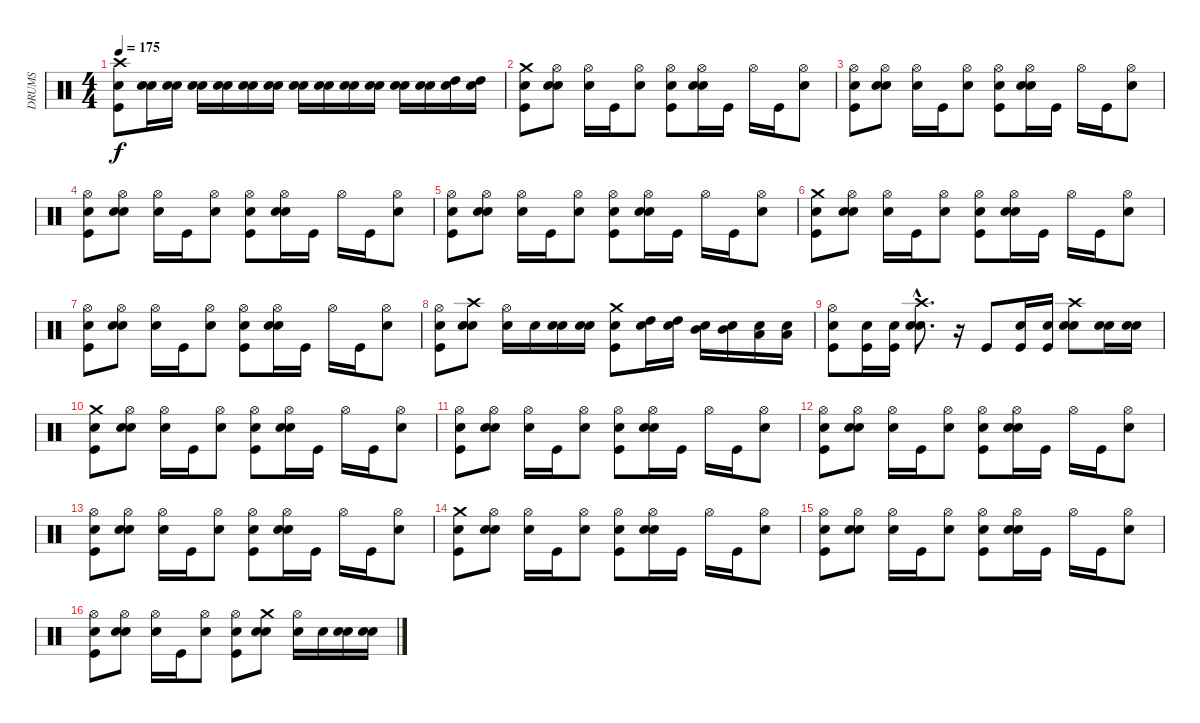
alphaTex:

\track ("DRUMS" "DRUMS") {instrument percussion}
\staff {score}
\articulation defaults
\ts (4 4)
\tempo 175
\clef neutral
\ks c
("Snare (hit)" "Kick (hit)" "Crash high (hit)").8{dy f} ("Snare (hit)" "Snare (hit) 2").16 ("Snare (hit)" "Snare (hit) 2").16 ("Snare (hit)" "Snare (hit) 2").16 ("Snare (hit)" "Snare (hit) 2").16 ("Snare (hit)" "Snare (hit) 2").16 ("Snare (hit)" "Snare (hit) 2").16 ("Snare (hit)" "Snare (hit) 2").16 ("Snare (hit)" "Snare (hit) 2").16 ("Snare (hit)" "Snare (hit) 2").16 ("Snare (hit)" "Snare (hit) 2").16 ("Snare (hit)" "Snare (hit) 2").16 ("Snare (hit)" "Snare (hit) 2").16 ("Snare (hit)" "High Tom (hit)").16 ("Snare (hit)" "High Tom (hit)").16 |
("Snare (hit)" "Kick (hit)" "Crash medium (hit)").8 ("Snare (hit)" "Snare (hit) 2" "Hi-Hat (open)").8 ("Snare (hit)" "Hi-Hat (open)").16 "Kick (hit)".16 ("Snare (hit) 2" "Hi-Hat (open)").8 ("Snare (hit)" "Kick (hit)" "Hi-Hat (open)").8 ("Snare (hit)" "Snare (hit) 2" "Hi-Hat (open)").16 "Kick (hit)".16 "Hi-Hat (open)".16 "Kick (hit)".16 ("Snare (hit) 2" "Hi-Hat (open)").8 |
("Snare (hit)" "Hi-Hat (open)" "Kick (hit)").8 ("Snare (hit)" "Hi-Hat (open)" "Snare (hit) 2").8 ("Snare (hit)" "Hi-Hat (open)").16 "Kick (hit)".16 ("Hi-Hat (open)" "Snare (hit) 2").8 ("Snare (hit)" "Hi-Hat (open)" "Kick (hit)").8 ("Snare (hit)" "Hi-Hat (open)" "Snare (hit) 2").16 "Kick (hit)".16 "Hi-Hat (open)".16 "Kick (hit)".16 ("Hi-Hat (open)" "Snare (hit) 2").8 |
("Snare (hit)" "Hi-Hat (open)" "Kick (hit)").8 ("Snare (hit)" "Hi-Hat (open)" "Snare (hit) 2").8 ("Snare (hit)" "Hi-Hat (open)").16 "Kick (hit)".16 ("Hi-Hat (open)" "Snare (hit) 2").8 ("Snare (hit)" "Hi-Hat (open)" "Kick (hit)").8 ("Snare (hit)" "Hi-Hat (open)" "Snare (hit) 2").16 "Kick (hit)".16 "Hi-Hat (open)".16 "Kick (hit)".16 ("Hi-Hat (open)" "Snare (hit) 2").8 |
("Snare (hit)" "Hi-Hat (open)" "Kick (hit)").8 ("Snare (hit)" "Hi-Hat (open)" "Snare (hit) 2").8 ("Snare (hit)" "Hi-Hat (open)").16 "Kick (hit)".16 ("Hi-Hat (open)" "Snare (hit) 2").8 ("Snare (hit)" "Hi-Hat (open)" "Kick (hit)").8 ("Snare (hit)" "Hi-Hat (open)" "Snare (hit) 2").16 "Kick (hit)".16 "Hi-Hat (open)".16 "Kick (hit)".16 ("Hi-Hat (open)" "Snare (hit) 2").8 |
("Snare (hit)" "Kick (hit)" "Crash medium (hit)").8 ("Snare (hit)" "Snare (hit) 2" "Hi-Hat (open)").8 ("Snare (hit)" "Hi-Hat (open)").16 "Kick (hit)".16 ("Snare (hit) 2" "Hi-Hat (open)").8 ("Snare (hit)" "Kick (hit)" "Hi-Hat (open)").8 ("Snare (hit)" "Snare (hit) 2" "Hi-Hat (open)").16 "Kick (hit)".16 "Hi-Hat (open)".16 "Kick (hit)".16 ("Snare (hit) 2" "Hi-Hat (open)").8 |
("Snare (hit)" "Hi-Hat (open)" "Kick (hit)").8 ("Snare (hit)" "Hi-Hat (open)" "Snare (hit) 2").8 ("Snare (hit)" "Hi-Hat (open)").16 "Kick (hit)".16 ("Hi-Hat (open)" "Snare (hit) 2").8 ("Snare (hit)" "Hi-Hat (open)" "Kick (hit)").8 ("Snare (hit)" "Hi-Hat (open)" "Snare (hit) 2").16 "Kick (hit)".16 "Hi-Hat (open)".16 "Kick (hit)".16 ("Hi-Hat (open)" "Snare (hit) 2").8 |
("Snare (hit)" "Hi-Hat (open)" "Kick (hit)").8 ("Snare (hit)" "Crash high (hit)" "Snare (hit) 2").8 ("Snare (hit)" "Hi-Hat (open)").16 "Snare (hit) 2".16 ("Snare (hit)" "Snare (hit) 2").16 ("Snare (hit)" "Snare (hit) 2").16 ("Snare (hit)" "Crash medium (hit)" "Kick (hit)").8 ("Snare (hit)" "High Tom (hit)").16 ("Snare (hit)" "High Tom (hit)").16 ("Snare (hit)" "Mid Tom (hit)").16 ("Snare (hit)" "Mid Tom (hit)").16 ("Snare (hit)" "Low Tom (hit)").16 ("Snare (hit)" "Low Tom (hit)").16 |
("Snare (hit)" "Kick (hit)" "Hi-Hat (open)").8 ("Snare (hit)" "Kick (hit)").16 ("Snare (hit)" "Kick (hit)").16 ("Snare (hit)"{hac} "Snare (hit) 2"{hac} "Crash high (hit)"{hac}).8{d} r.16 "Kick (hit)".8 ("Snare (hit)" "Kick (hit)").16 ("Snare (hit)" "Kick (hit)").16 ("Snare (hit)" "Snare (hit) 2" "Crash high (hit)").8 ("Snare (hit)" "Snare (hit) 2").16 ("Snare (hit)" "Snare (hit) 2").16 |
("Snare (hit)" "Kick (hit)" "Crash medium (hit)").8 ("Snare (hit)" "Snare (hit) 2" "Hi-Hat (open)").8 ("Snare (hit)" "Hi-Hat (open)").16 "Kick (hit)".16 ("Snare (hit) 2" "Hi-Hat (open)").8 ("Snare (hit)" "Kick (hit)" "Hi-Hat (open)").8 ("Snare (hit)" "Snare (hit) 2" "Hi-Hat (open)").16 "Kick (hit)".16 "Hi-Hat (open)".16 "Kick (hit)".16 ("Snare (hit) 2" "Hi-Hat (open)").8 |
("Snare (hit)" "Hi-Hat (open)" "Kick (hit)").8 ("Snare (hit)" "Hi-Hat (open)" "Snare (hit) 2").8 ("Snare (hit)" "Hi-Hat (open)").16 "Kick (hit)".16 ("Hi-Hat (open)" "Snare (hit) 2").8 ("Snare (hit)" "Hi-Hat (open)" "Kick (hit)").8 ("Snare (hit)" "Hi-Hat (open)" "Snare (hit) 2").16 "Kick (hit)".16 "Hi-Hat (open)".16 "Kick (hit)".16 ("Hi-Hat (open)" "Snare (hit) 2").8 |
("Snare (hit)" "Hi-Hat (open)" "Kick (hit)").8 ("Snare (hit)" "Hi-Hat (open)" "Snare (hit) 2").8 ("Snare (hit)" "Hi-Hat (open)").16 "Kick (hit)".16 ("Hi-Hat (open)" "Snare (hit) 2").8 ("Snare (hit)" "Hi-Hat (open)" "Kick (hit)").8 ("Snare (hit)" "Hi-Hat (open)" "Snare (hit) 2").16 "Kick (hit)".16 "Hi-Hat (open)".16 "Kick (hit)".16 ("Hi-Hat (open)" "Snare (hit) 2").8 |
("Snare (hit)" "Hi-Hat (open)" "Kick (hit)").8 ("Snare (hit)" "Hi-Hat (open)" "Snare (hit) 2").8 ("Snare (hit)" "Hi-Hat (open)").16 "Kick (hit)".16 ("Hi-Hat (open)" "Snare (hit) 2").8 ("Snare (hit)" "Hi-Hat (open)" "Kick (hit)").8 ("Snare (hit)" "Hi-Hat (open)" "Snare (hit) 2").16 "Kick (hit)".16 "Hi-Hat (open)".16 "Kick (hit)".16 ("Hi-Hat (open)" "Snare (hit) 2").8 |
("Snare (hit)" "Crash medium (hit)" "Kick (hit)").8 ("Snare (hit)" "Hi-Hat (open)" "Snare (hit) 2").8 ("Snare (hit)" "Hi-Hat (open)").16 "Kick (hit)".16 ("Hi-Hat (open)" "Snare (hit) 2").8 ("Snare (hit)" "Hi-Hat (open)" "Kick (hit)").8 ("Snare (hit)" "Hi-Hat (open)" "Snare (hit) 2").16 "Kick (hit)".16 "Hi-Hat (open)".16 "Kick (hit)".16 ("Hi-Hat (open)" "Snare (hit) 2").8 |
("Snare (hit)" "Kick (hit)" "Hi-Hat (open)").8 ("Snare (hit)" "Snare (hit) 2" "Hi-Hat (open)").8 ("Snare (hit)" "Hi-Hat (open)").16 "Kick (hit)".16 ("Snare (hit) 2" "Hi-Hat (open)").8 ("Snare (hit)" "Kick (hit)" "Hi-Hat (open)").8 ("Snare (hit)" "Snare (hit) 2" "Hi-Hat (open)").16 "Kick (hit)".16 "Hi-Hat (open)".16 "Kick (hit)".16 ("Snare (hit) 2" "Hi-Hat (open)").8 |
("Snare (hit)" "Kick (hit)" "Hi-Hat (open)").8 ("Snare (hit)" "Snare (hit) 2" "Hi-Hat (open)").8 ("Snare (hit)" "Hi-Hat (open)").16 "Kick (hit)".16 ("Snare (hit) 2" "Hi-Hat (open)").8 ("Snare (hit)" "Kick (hit)" "Hi-Hat (open)").8 ("Snare (hit)" "Snare (hit) 2" "Crash medium (hit)").8 ("Snare (hit)" "Hi-Hat (open)").16 "Snare (hit) 2".16 ("Snare (hit)" "Snare (hit) 2").16 ("Snare (hit)" "Snare (hit) 2").16
